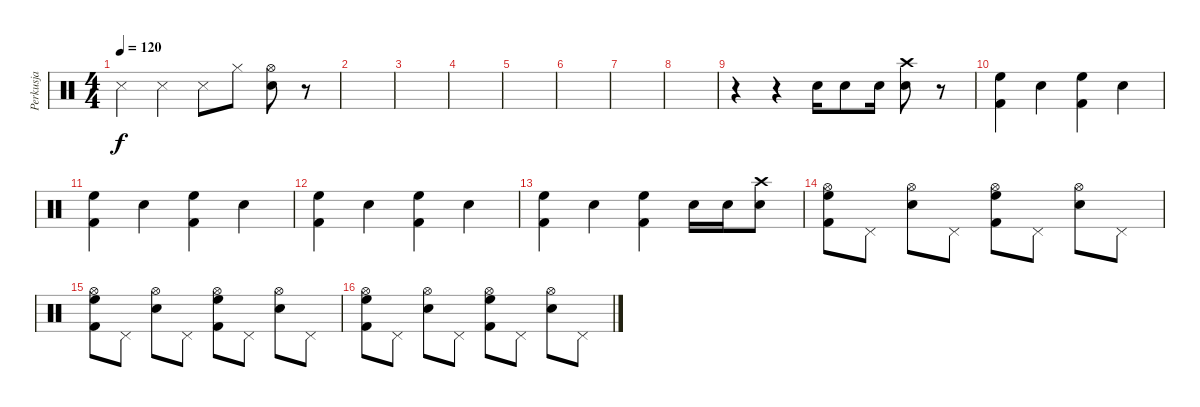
\track ("Perkusja" "Perkusja") {instrument percussion}
\staff {score}
\articulation defaults
\ts (4 4)
\tempo 120
\clef neutral
\ks c "Snare (side stick) 3".4{dy f} "Snare (side stick) 3".4 "Snare (side stick) 3".8 "Hi-Hat (closed)".8
("Hi-Hat (open)" "Snare (hit) 2").8 r.8 |
|
|
|
|
|
|
|
r.4 r.4 "Snare (hit) 2".16 "Snare (hit) 2".8 "Snare (hit) 2".16 ("Crash high (hit)" "Snare (hit) 2").8 r.8 |
("High Floor Tom (hit)" "Kick (hit) 2").4 "Snare (hit) 2".4 ("High Floor Tom (hit)" "Kick (hit) 2").4 "Snare (hit) 2".4 |
("High Floor Tom (hit)" "Kick (hit) 2").4 "Snare (hit) 2".4 ("High Floor Tom (hit)" "Kick (hit) 2").4 "Snare (hit) 2".4 |
("High Floor Tom (hit)" "Kick (hit) 2").4 "Snare (hit) 2".4 ("High Floor Tom (hit)" "Kick (hit) 2").4 "Snare (hit) 2".4 |
("High Floor Tom (hit)" "Kick (hit) 2").4 "Snare (hit) 2".4 ("High Floor Tom (hit)" "Kick (hit) 2").4 "Snare (hit) 2".16 "Snare (hit) 2".16 ("Crash high (hit)" "Snare (hit) 2").8 |
("Hi-Hat (open)" "High Floor Tom (hit)" "Kick (hit) 2").8 "Pedal Hi-Hat (hit)".8 ("Hi-Hat (open)" "Snare (hit) 2").8 "Pedal Hi-Hat (hit)".8 ("Hi-Hat (open)" "High Floor Tom (hit)" "Kick (hit) 2").8 "Pedal Hi-Hat (hit)".8 ("Hi-Hat (open)" "Snare (hit) 2").8 "Pedal Hi-Hat (hit)".8 |
("Hi-Hat (open)" "High Floor Tom (hit)" "Kick (hit) 2").8 "Pedal Hi-Hat (hit)".8 ("Hi-Hat (open)" "Snare (hit) 2").8 "Pedal Hi-Hat (hit)".8 ("Hi-Hat (open)" "High Floor Tom (hit)" "Kick (hit) 2").8 "Pedal Hi-Hat (hit)".8 ("Hi-Hat (open)" "Snare (hit) 2").8 "Pedal Hi-Hat (hit)".8 |
("Hi-Hat (open)" "High Floor Tom (hit)" "Kick (hit) 2").8 "Pedal Hi-Hat (hit)".8 ("Hi-Hat (open)" "Snare (hit) 2").8 "Pedal Hi-Hat (hit)".8 ("Hi-Hat (open)" "High Floor Tom (hit)" "Kick (hit) 2").8 "Pedal Hi-Hat (hit)".8 ("Hi-Hat (open)" "Snare (hit) 2").8 "Pedal Hi-Hat (hit)".8
